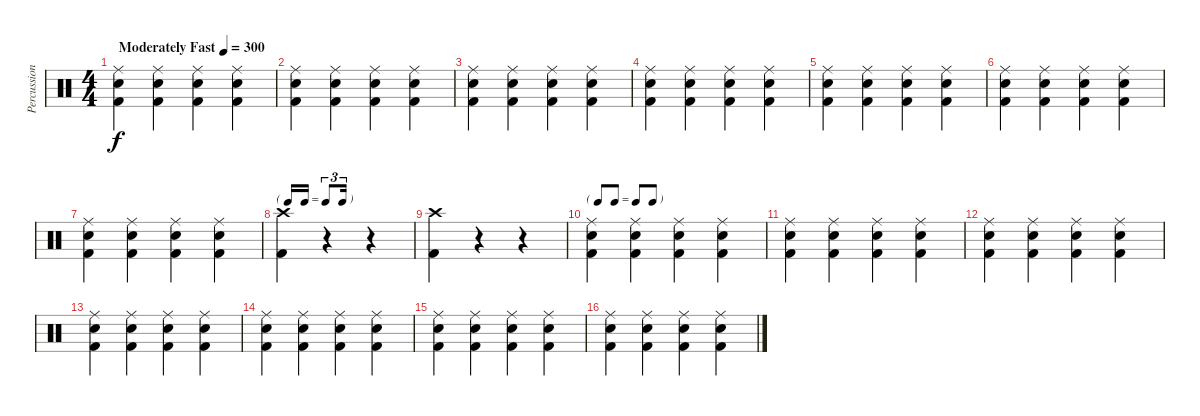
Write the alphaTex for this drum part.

\track ("Percussion" "Percussion") {instrument percussion}
\staff {score}
\articulation defaults
\ts (4 4)
\tempo (300 "Moderately Fast")
\clef neutral
\ks c
("Ride (middle)" "Snare (hit) 2" "Kick (hit) 2").4{dy f} ("Ride (middle)" "Snare (hit) 2" "Kick (hit) 2").4 ("Ride (middle)" "Snare (hit) 2" "Kick (hit) 2").4 ("Ride (middle)" "Snare (hit) 2" "Kick (hit) 2").4 |
("Ride (middle)" "Snare (hit) 2" "Kick (hit) 2").4 ("Ride (middle)" "Snare (hit) 2" "Kick (hit) 2").4 ("Ride (middle)" "Snare (hit) 2" "Kick (hit) 2").4 ("Ride (middle)" "Snare (hit) 2" "Kick (hit) 2").4 |
("Ride (middle)" "Snare (hit) 2" "Kick (hit) 2").4 ("Ride (middle)" "Snare (hit) 2" "Kick (hit) 2").4 ("Ride (middle)" "Snare (hit) 2" "Kick (hit) 2").4 ("Ride (middle)" "Snare (hit) 2" "Kick (hit) 2").4 |
("Ride (middle)" "Snare (hit) 2" "Kick (hit) 2").4 ("Ride (middle)" "Snare (hit) 2" "Kick (hit) 2").4 ("Ride (middle)" "Snare (hit) 2" "Kick (hit) 2").4 ("Ride (middle)" "Snare (hit) 2" "Kick (hit) 2").4 |
("Ride (middle)" "Snare (hit) 2" "Kick (hit) 2").4 ("Ride (middle)" "Snare (hit) 2" "Kick (hit) 2").4 ("Ride (middle)" "Snare (hit) 2" "Kick (hit) 2").4 ("Ride (middle)" "Snare (hit) 2" "Kick (hit) 2").4 |
("Ride (middle)" "Snare (hit) 2" "Kick (hit) 2").4 ("Ride (middle)" "Snare (hit) 2" "Kick (hit) 2").4 ("Ride (middle)" "Snare (hit) 2" "Kick (hit) 2").4 ("Ride (middle)" "Snare (hit) 2" "Kick (hit) 2").4 |
("Ride (middle)" "Snare (hit) 2" "Kick (hit) 2").4 ("Ride (middle)" "Snare (hit) 2" "Kick (hit) 2").4 ("Ride (middle)" "Snare (hit) 2" "Kick (hit) 2").4 ("Ride (middle)" "Snare (hit) 2" "Kick (hit) 2").4 |
\tf triplet16th
("Crash high (hit)" "Kick (hit) 2").4 r.4 r.4 |
("Crash high (hit)" "Kick (hit) 2").4 r.4 r.4 |
\tf none
("Ride (middle)" "Snare (hit) 2" "Kick (hit) 2").4 ("Ride (middle)" "Snare (hit) 2" "Kick (hit) 2").4 ("Ride (middle)" "Snare (hit) 2" "Kick (hit) 2").4 ("Ride (middle)" "Snare (hit) 2" "Kick (hit) 2").4 |
("Ride (middle)" "Snare (hit) 2" "Kick (hit) 2").4 ("Ride (middle)" "Snare (hit) 2" "Kick (hit) 2").4 ("Ride (middle)" "Snare (hit) 2" "Kick (hit) 2").4 ("Ride (middle)" "Snare (hit) 2" "Kick (hit) 2").4 |
("Ride (middle)" "Snare (hit) 2" "Kick (hit) 2").4 ("Ride (middle)" "Snare (hit) 2" "Kick (hit) 2").4 ("Ride (middle)" "Snare (hit) 2" "Kick (hit) 2").4 ("Ride (middle)" "Snare (hit) 2" "Kick (hit) 2").4 |
("Ride (middle)" "Snare (hit) 2" "Kick (hit) 2").4 ("Ride (middle)" "Snare (hit) 2" "Kick (hit) 2").4 ("Ride (middle)" "Snare (hit) 2" "Kick (hit) 2").4 ("Ride (middle)" "Snare (hit) 2" "Kick (hit) 2").4 |
("Ride (middle)" "Snare (hit) 2" "Kick (hit) 2").4 ("Ride (middle)" "Snare (hit) 2" "Kick (hit) 2").4 ("Ride (middle)" "Snare (hit) 2" "Kick (hit) 2").4 ("Ride (middle)" "Snare (hit) 2" "Kick (hit) 2").4 |
("Ride (middle)" "Snare (hit) 2" "Kick (hit) 2").4 ("Ride (middle)" "Snare (hit) 2" "Kick (hit) 2").4 ("Ride (middle)" "Snare (hit) 2" "Kick (hit) 2").4 ("Ride (middle)" "Snare (hit) 2" "Kick (hit) 2").4 |
("Ride (middle)" "Snare (hit) 2" "Kick (hit) 2").4 ("Ride (middle)" "Snare (hit) 2" "Kick (hit) 2").4 ("Ride (middle)" "Snare (hit) 2" "Kick (hit) 2").4 ("Ride (middle)" "Snare (hit) 2" "Kick (hit) 2").4
